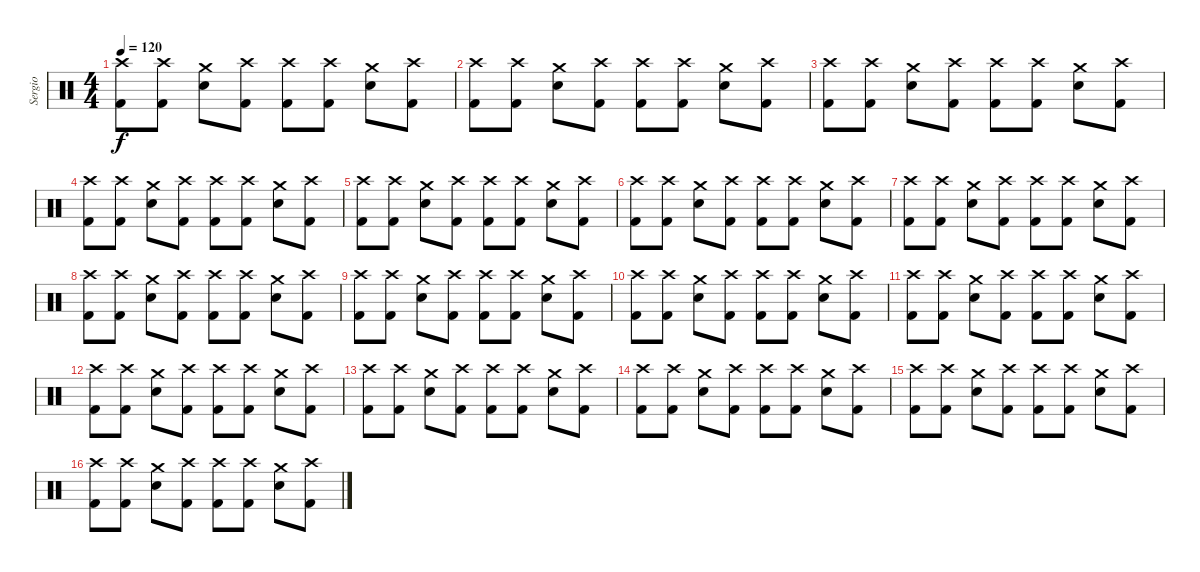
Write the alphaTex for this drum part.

\track ("Sergio" "Sergio") {instrument percussion}
\staff {score}
\articulation defaults
\ts (4 4)
\tempo 120
\clef neutral
\ks c
("Kick (hit) 2" "Crash high (hit)").8{dy f} ("Kick (hit) 2" "Crash high (hit)").8 ("Electric Snare (hit)" "Crash medium (hit)").8 ("Kick (hit) 2" "Crash high (hit)").8 ("Kick (hit) 2" "Crash high (hit)").8 ("Kick (hit) 2" "Crash high (hit)").8 ("Electric Snare (hit)" "Crash medium (hit)").8 ("Kick (hit) 2" "Crash high (hit)").8 |
("Kick (hit) 2" "Crash high (hit)").8 ("Kick (hit) 2" "Crash high (hit)").8 ("Electric Snare (hit)" "Crash medium (hit)").8 ("Kick (hit) 2" "Crash high (hit)").8 ("Kick (hit) 2" "Crash high (hit)").8 ("Kick (hit) 2" "Crash high (hit)").8 ("Electric Snare (hit)" "Crash medium (hit)").8 ("Kick (hit) 2" "Crash high (hit)").8 |
("Kick (hit) 2" "Crash high (hit)").8 ("Kick (hit) 2" "Crash high (hit)").8 ("Electric Snare (hit)" "Crash medium (hit)").8 ("Kick (hit) 2" "Crash high (hit)").8 ("Kick (hit) 2" "Crash high (hit)").8 ("Kick (hit) 2" "Crash high (hit)").8 ("Electric Snare (hit)" "Crash medium (hit)").8 ("Kick (hit) 2" "Crash high (hit)").8 |
("Kick (hit) 2" "Crash high (hit)").8 ("Kick (hit) 2" "Crash high (hit)").8 ("Electric Snare (hit)" "Crash medium (hit)").8 ("Kick (hit) 2" "Crash high (hit)").8 ("Kick (hit) 2" "Crash high (hit)").8 ("Kick (hit) 2" "Crash high (hit)").8 ("Electric Snare (hit)" "Crash medium (hit)").8 ("Kick (hit) 2" "Crash high (hit)").8 |
("Kick (hit) 2" "Crash high (hit)").8 ("Kick (hit) 2" "Crash high (hit)").8 ("Electric Snare (hit)" "Crash medium (hit)").8 ("Kick (hit) 2" "Crash high (hit)").8 ("Kick (hit) 2" "Crash high (hit)").8 ("Kick (hit) 2" "Crash high (hit)").8 ("Electric Snare (hit)" "Crash medium (hit)").8 ("Kick (hit) 2" "Crash high (hit)").8 |
("Kick (hit) 2" "Crash high (hit)").8 ("Kick (hit) 2" "Crash high (hit)").8 ("Electric Snare (hit)" "Crash medium (hit)").8 ("Kick (hit) 2" "Crash high (hit)").8 ("Kick (hit) 2" "Crash high (hit)").8 ("Kick (hit) 2" "Crash high (hit)").8 ("Electric Snare (hit)" "Crash medium (hit)").8 ("Kick (hit) 2" "Crash high (hit)").8 |
("Kick (hit) 2" "Crash high (hit)").8 ("Kick (hit) 2" "Crash high (hit)").8 ("Electric Snare (hit)" "Crash medium (hit)").8 ("Kick (hit) 2" "Crash high (hit)").8 ("Kick (hit) 2" "Crash high (hit)").8 ("Kick (hit) 2" "Crash high (hit)").8 ("Electric Snare (hit)" "Crash medium (hit)").8 ("Kick (hit) 2" "Crash high (hit)").8 |
("Kick (hit) 2" "Crash high (hit)").8 ("Kick (hit) 2" "Crash high (hit)").8 ("Electric Snare (hit)" "Crash medium (hit)").8 ("Kick (hit) 2" "Crash high (hit)").8 ("Kick (hit) 2" "Crash high (hit)").8 ("Kick (hit) 2" "Crash high (hit)").8 ("Electric Snare (hit)" "Crash medium (hit)").8 ("Kick (hit) 2" "Crash high (hit)").8 |
("Kick (hit) 2" "Crash high (hit)").8 ("Kick (hit) 2" "Crash high (hit)").8 ("Electric Snare (hit)" "Crash medium (hit)").8 ("Kick (hit) 2" "Crash high (hit)").8 ("Kick (hit) 2" "Crash high (hit)").8 ("Kick (hit) 2" "Crash high (hit)").8 ("Electric Snare (hit)" "Crash medium (hit)").8 ("Kick (hit) 2" "Crash high (hit)").8 |
("Kick (hit) 2" "Crash high (hit)").8 ("Kick (hit) 2" "Crash high (hit)").8 ("Electric Snare (hit)" "Crash medium (hit)").8 ("Kick (hit) 2" "Crash high (hit)").8 ("Kick (hit) 2" "Crash high (hit)").8 ("Kick (hit) 2" "Crash high (hit)").8 ("Electric Snare (hit)" "Crash medium (hit)").8 ("Kick (hit) 2" "Crash high (hit)").8 |
("Kick (hit) 2" "Crash high (hit)").8 ("Kick (hit) 2" "Crash high (hit)").8 ("Electric Snare (hit)" "Crash medium (hit)").8 ("Kick (hit) 2" "Crash high (hit)").8 ("Kick (hit) 2" "Crash high (hit)").8 ("Kick (hit) 2" "Crash high (hit)").8 ("Electric Snare (hit)" "Crash medium (hit)").8 ("Kick (hit) 2" "Crash high (hit)").8 |
("Kick (hit) 2" "Crash high (hit)").8 ("Kick (hit) 2" "Crash high (hit)").8 ("Electric Snare (hit)" "Crash medium (hit)").8 ("Kick (hit) 2" "Crash high (hit)").8 ("Kick (hit) 2" "Crash high (hit)").8 ("Kick (hit) 2" "Crash high (hit)").8 ("Electric Snare (hit)" "Crash medium (hit)").8 ("Kick (hit) 2" "Crash high (hit)").8 |
("Kick (hit) 2" "Crash high (hit)").8 ("Kick (hit) 2" "Crash high (hit)").8 ("Electric Snare (hit)" "Crash medium (hit)").8 ("Kick (hit) 2" "Crash high (hit)").8 ("Kick (hit) 2" "Crash high (hit)").8 ("Kick (hit) 2" "Crash high (hit)").8 ("Electric Snare (hit)" "Crash medium (hit)").8 ("Kick (hit) 2" "Crash high (hit)").8 |
("Kick (hit) 2" "Crash high (hit)").8 ("Kick (hit) 2" "Crash high (hit)").8 ("Electric Snare (hit)" "Crash medium (hit)").8 ("Kick (hit) 2" "Crash high (hit)").8 ("Kick (hit) 2" "Crash high (hit)").8 ("Kick (hit) 2" "Crash high (hit)").8 ("Electric Snare (hit)" "Crash medium (hit)").8 ("Kick (hit) 2" "Crash high (hit)").8 |
("Kick (hit) 2" "Crash high (hit)").8 ("Kick (hit) 2" "Crash high (hit)").8 ("Electric Snare (hit)" "Crash medium (hit)").8 ("Kick (hit) 2" "Crash high (hit)").8 ("Kick (hit) 2" "Crash high (hit)").8 ("Kick (hit) 2" "Crash high (hit)").8 ("Electric Snare (hit)" "Crash medium (hit)").8 ("Kick (hit) 2" "Crash high (hit)").8 |
("Kick (hit) 2" "Crash high (hit)").8 ("Kick (hit) 2" "Crash high (hit)").8 ("Electric Snare (hit)" "Crash medium (hit)").8 ("Kick (hit) 2" "Crash high (hit)").8 ("Kick (hit) 2" "Crash high (hit)").8 ("Kick (hit) 2" "Crash high (hit)").8 ("Electric Snare (hit)" "Crash medium (hit)").8 ("Kick (hit) 2" "Crash high (hit)").8
